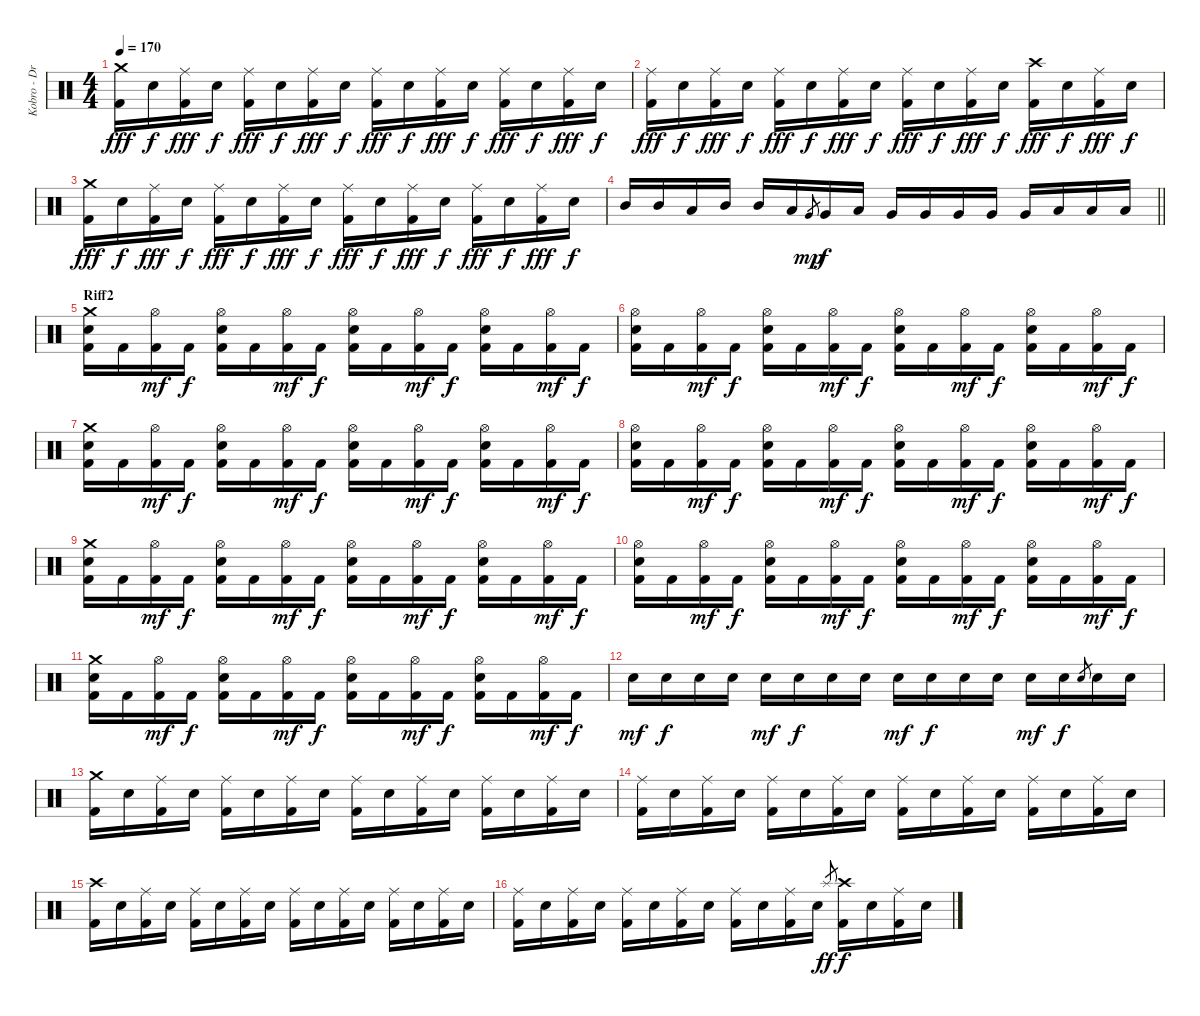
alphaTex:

\track ("Kobro - Drums + Percussion" "Kobro - Dr") {instrument percussion}
\staff {score}
\articulation defaults
\ts (4 4)
\tempo 170
\clef neutral
\ks c
("Crash medium (hit)" "Kick (hit) 2").16{dy fff volume 12} "Electric Snare (hit)".16{dy f} ("Ride (middle)" "Kick (hit) 2").16{dy fff} "Electric Snare (hit)".16{dy f} ("Ride (middle)" "Kick (hit) 2").16{dy fff} "Electric Snare (hit)".16{dy f} ("Ride (middle)" "Kick (hit) 2").16{dy fff} "Electric Snare (hit)".16{dy f} ("Ride (middle)" "Kick (hit) 2").16{dy fff} "Electric Snare (hit)".16{dy f} ("Ride (middle)" "Kick (hit) 2").16{dy fff} "Electric Snare (hit)".16{dy f} ("Ride (middle)" "Kick (hit) 2").16{dy fff} "Electric Snare (hit)".16{dy f} ("Ride (middle)" "Kick (hit) 2").16{dy fff} "Electric Snare (hit)".16{dy f} |
("Ride (middle)" "Kick (hit) 2").16{dy fff} "Electric Snare (hit)".16{dy f} ("Ride (middle)" "Kick (hit) 2").16{dy fff} "Electric Snare (hit)".16{dy f} ("Ride (middle)" "Kick (hit) 2").16{dy fff} "Electric Snare (hit)".16{dy f} ("Ride (middle)" "Kick (hit) 2").16{dy fff} "Electric Snare (hit)".16{dy f} ("Ride (middle)" "Kick (hit) 2").16{dy fff} "Electric Snare (hit)".16{dy f} ("Ride (middle)" "Kick (hit) 2").16{dy fff} "Electric Snare (hit)".16{dy f} ("Crash high (hit)" "Kick (hit) 2").16{dy fff} "Electric Snare (hit)".16{dy f} ("Ride (middle)" "Kick (hit) 2").16{dy fff} "Electric Snare (hit)".16{dy f} |
("Crash medium (hit)" "Kick (hit) 2").16{dy fff} "Electric Snare (hit)".16{dy f} ("Ride (middle)" "Kick (hit) 2").16{dy fff} "Electric Snare (hit)".16{dy f} ("Ride (middle)" "Kick (hit) 2").16{dy fff} "Electric Snare (hit)".16{dy f} ("Ride (middle)" "Kick (hit) 2").16{dy fff} "Electric Snare (hit)".16{dy f} ("Ride (middle)" "Kick (hit) 2").16{dy fff} "Electric Snare (hit)".16{dy f} ("Ride (middle)" "Kick (hit) 2").16{dy fff} "Electric Snare (hit)".16{dy f} ("Ride (middle)" "Kick (hit) 2").16{dy fff} "Electric Snare (hit)".16{dy f} ("Ride (middle)" "Kick (hit) 2").16{dy fff} "Electric Snare (hit)".16{dy f} |
\barLineRight lightlight "Mid Tom (hit)".16 "Mid Tom (hit)".16 "Low Tom (hit)".16 "Mid Tom (hit)".16 "Mid Tom (hit)".16 "Low Tom (hit)".16 "Very Low Tom (hit)".8{gr dy mp} "Very Low Tom (hit)".16{dy f} "Low Tom (hit)".16 "Very Low Tom (hit)".16 "Very Low Tom (hit)".16 "Very Low Tom (hit)".16 "Very Low Tom (hit)".16 "Very Low Tom (hit)".16 "Low Floor Tom (hit)".16 "Low Floor Tom (hit)".16 "Low Floor Tom (hit)".16
|
\section ("" "Riff2")
("Crash medium (hit)" "Electric Snare (hit)" "Kick (hit) 2").16 "Kick (hit) 2".16 ("Hi-Hat (open)" "Kick (hit) 2").16{dy mf} "Kick (hit) 2".16{dy f} ("Hi-Hat (open)" "Electric Snare (hit)" "Kick (hit) 2").16 "Kick (hit) 2".16 ("Hi-Hat (open)" "Kick (hit) 2").16{dy mf} "Kick (hit) 2".16{dy f} ("Hi-Hat (open)" "Electric Snare (hit)" "Kick (hit) 2").16 "Kick (hit) 2".16 ("Hi-Hat (open)" "Kick (hit) 2").16{dy mf} "Kick (hit) 2".16{dy f} ("Hi-Hat (open)" "Electric Snare (hit)" "Kick (hit) 2").16 "Kick (hit) 2".16 ("Hi-Hat (open)" "Kick (hit) 2").16{dy mf} "Kick (hit) 2".16{dy f} |
("Hi-Hat (open)" "Electric Snare (hit)" "Kick (hit) 2").16 "Kick (hit) 2".16 ("Hi-Hat (open)" "Kick (hit) 2").16{dy mf} "Kick (hit) 2".16{dy f} ("Hi-Hat (open)" "Electric Snare (hit)" "Kick (hit) 2").16 "Kick (hit) 2".16 ("Hi-Hat (open)" "Kick (hit) 2").16{dy mf} "Kick (hit) 2".16{dy f} ("Hi-Hat (open)" "Electric Snare (hit)" "Kick (hit) 2").16 "Kick (hit) 2".16 ("Hi-Hat (open)" "Kick (hit) 2").16{dy mf} "Kick (hit) 2".16{dy f} ("Hi-Hat (open)" "Electric Snare (hit)" "Kick (hit) 2").16 "Kick (hit) 2".16 ("Hi-Hat (open)" "Kick (hit) 2").16{dy mf} "Kick (hit) 2".16{dy f} |
("Crash medium (hit)" "Electric Snare (hit)" "Kick (hit) 2").16 "Kick (hit) 2".16 ("Hi-Hat (open)" "Kick (hit) 2").16{dy mf} "Kick (hit) 2".16{dy f} ("Hi-Hat (open)" "Electric Snare (hit)" "Kick (hit) 2").16 "Kick (hit) 2".16 ("Hi-Hat (open)" "Kick (hit) 2").16{dy mf} "Kick (hit) 2".16{dy f} ("Hi-Hat (open)" "Electric Snare (hit)" "Kick (hit) 2").16 "Kick (hit) 2".16 ("Hi-Hat (open)" "Kick (hit) 2").16{dy mf} "Kick (hit) 2".16{dy f} ("Hi-Hat (open)" "Electric Snare (hit)" "Kick (hit) 2").16 "Kick (hit) 2".16 ("Hi-Hat (open)" "Kick (hit) 2").16{dy mf} "Kick (hit) 2".16{dy f} |
("Hi-Hat (open)" "Electric Snare (hit)" "Kick (hit) 2").16 "Kick (hit) 2".16 ("Hi-Hat (open)" "Kick (hit) 2").16{dy mf} "Kick (hit) 2".16{dy f} ("Hi-Hat (open)" "Electric Snare (hit)" "Kick (hit) 2").16 "Kick (hit) 2".16 ("Hi-Hat (open)" "Kick (hit) 2").16{dy mf} "Kick (hit) 2".16{dy f} ("Hi-Hat (open)" "Electric Snare (hit)" "Kick (hit) 2").16 "Kick (hit) 2".16 ("Hi-Hat (open)" "Kick (hit) 2").16{dy mf} "Kick (hit) 2".16{dy f} ("Hi-Hat (open)" "Electric Snare (hit)" "Kick (hit) 2").16 "Kick (hit) 2".16 ("Hi-Hat (open)" "Kick (hit) 2").16{dy mf} "Kick (hit) 2".16{dy f} |
("Crash medium (hit)" "Electric Snare (hit)" "Kick (hit) 2").16 "Kick (hit) 2".16 ("Hi-Hat (open)" "Kick (hit) 2").16{dy mf} "Kick (hit) 2".16{dy f} ("Hi-Hat (open)" "Electric Snare (hit)" "Kick (hit) 2").16 "Kick (hit) 2".16 ("Hi-Hat (open)" "Kick (hit) 2").16{dy mf} "Kick (hit) 2".16{dy f} ("Hi-Hat (open)" "Electric Snare (hit)" "Kick (hit) 2").16 "Kick (hit) 2".16 ("Hi-Hat (open)" "Kick (hit) 2").16{dy mf} "Kick (hit) 2".16{dy f} ("Hi-Hat (open)" "Electric Snare (hit)" "Kick (hit) 2").16 "Kick (hit) 2".16 ("Hi-Hat (open)" "Kick (hit) 2").16{dy mf} "Kick (hit) 2".16{dy f} |
("Hi-Hat (open)" "Electric Snare (hit)" "Kick (hit) 2").16 "Kick (hit) 2".16 ("Hi-Hat (open)" "Kick (hit) 2").16{dy mf} "Kick (hit) 2".16{dy f} ("Hi-Hat (open)" "Electric Snare (hit)" "Kick (hit) 2").16 "Kick (hit) 2".16 ("Hi-Hat (open)" "Kick (hit) 2").16{dy mf} "Kick (hit) 2".16{dy f} ("Hi-Hat (open)" "Electric Snare (hit)" "Kick (hit) 2").16 "Kick (hit) 2".16 ("Hi-Hat (open)" "Kick (hit) 2").16{dy mf} "Kick (hit) 2".16{dy f} ("Hi-Hat (open)" "Electric Snare (hit)" "Kick (hit) 2").16 "Kick (hit) 2".16 ("Hi-Hat (open)" "Kick (hit) 2").16{dy mf} "Kick (hit) 2".16{dy f} |
("Crash medium (hit)" "Electric Snare (hit)" "Kick (hit) 2").16 "Kick (hit) 2".16 ("Hi-Hat (open)" "Kick (hit) 2").16{dy mf} "Kick (hit) 2".16{dy f} ("Hi-Hat (open)" "Electric Snare (hit)" "Kick (hit) 2").16 "Kick (hit) 2".16 ("Hi-Hat (open)" "Kick (hit) 2").16{dy mf} "Kick (hit) 2".16{dy f} ("Hi-Hat (open)" "Electric Snare (hit)" "Kick (hit) 2").16 "Kick (hit) 2".16 ("Hi-Hat (open)" "Kick (hit) 2").16{dy mf} "Kick (hit) 2".16{dy f} ("Hi-Hat (open)" "Electric Snare (hit)" "Kick (hit) 2").16 "Kick (hit) 2".16 ("Hi-Hat (open)" "Kick (hit) 2").16{dy mf} "Kick (hit) 2".16{dy f} |
"Electric Snare (hit)".16{dy mf} "Electric Snare (hit)".16{dy f} "Electric Snare (hit)".16 "Electric Snare (hit)".16 "Electric Snare (hit)".16{dy mf} "Electric Snare (hit)".16{dy f} "Electric Snare (hit)".16 "Electric Snare (hit)".16 "Electric Snare (hit)".16{dy mf} "Electric Snare (hit)".16{dy f} "Electric Snare (hit)".16 "Electric Snare (hit)".16 "Electric Snare (hit)".16{dy mf} "Electric Snare (hit)".16{dy f} "Electric Snare (hit)".8{gr} "Electric Snare (hit)".16 "Electric Snare (hit)".16 |
("Crash medium (hit)" "Kick (hit) 2").16 "Electric Snare (hit)".16 ("Ride (middle)" "Kick (hit) 2").16 "Electric Snare (hit)".16 ("Ride (middle)" "Kick (hit) 2").16 "Electric Snare (hit)".16 ("Ride (middle)" "Kick (hit) 2").16 "Electric Snare (hit)".16 ("Ride (middle)" "Kick (hit) 2").16 "Electric Snare (hit)".16 ("Ride (middle)" "Kick (hit) 2").16 "Electric Snare (hit)".16 ("Ride (middle)" "Kick (hit) 2").16 "Electric Snare (hit)".16 ("Ride (middle)" "Kick (hit) 2").16 "Electric Snare (hit)".16 |
("Ride (middle)" "Kick (hit) 2").16 "Electric Snare (hit)".16 ("Ride (middle)" "Kick (hit) 2").16 "Electric Snare (hit)".16 ("Ride (middle)" "Kick (hit) 2").16 "Electric Snare (hit)".16 ("Ride (middle)" "Kick (hit) 2").16 "Electric Snare (hit)".16 ("Ride (middle)" "Kick (hit) 2").16 "Electric Snare (hit)".16 ("Ride (middle)" "Kick (hit) 2").16 "Electric Snare (hit)".16 ("Ride (middle)" "Kick (hit) 2").16 "Electric Snare (hit)".16 ("Ride (middle)" "Kick (hit) 2").16 "Electric Snare (hit)".16 |
("Crash high (hit)" "Kick (hit) 2").16 "Electric Snare (hit)".16 ("Ride (middle)" "Kick (hit) 2").16 "Electric Snare (hit)".16 ("Ride (middle)" "Kick (hit) 2").16 "Electric Snare (hit)".16 ("Ride (middle)" "Kick (hit) 2").16 "Electric Snare (hit)".16 ("Ride (middle)" "Kick (hit) 2").16 "Electric Snare (hit)".16 ("Ride (middle)" "Kick (hit) 2").16 "Electric Snare (hit)".16 ("Ride (middle)" "Kick (hit) 2").16 "Electric Snare (hit)".16 ("Ride (middle)" "Kick (hit) 2").16 "Electric Snare (hit)".16 |
("Ride (middle)" "Kick (hit) 2").16 "Electric Snare (hit)".16 ("Ride (middle)" "Kick (hit) 2").16 "Electric Snare (hit)".16 ("Ride (middle)" "Kick (hit) 2").16 "Electric Snare (hit)".16 ("Ride (middle)" "Kick (hit) 2").16 "Electric Snare (hit)".16 ("Ride (middle)" "Kick (hit) 2").16 "Electric Snare (hit)".16 ("Ride (middle)" "Kick (hit) 2").16 "Electric Snare (hit)".16 "Splash (hit)".8{gr dy ff} ("Crash high (hit)" "Kick (hit) 2").16{dy f} "Electric Snare (hit)".16 ("Ride (middle)" "Kick (hit) 2").16 "Electric Snare (hit)".16
